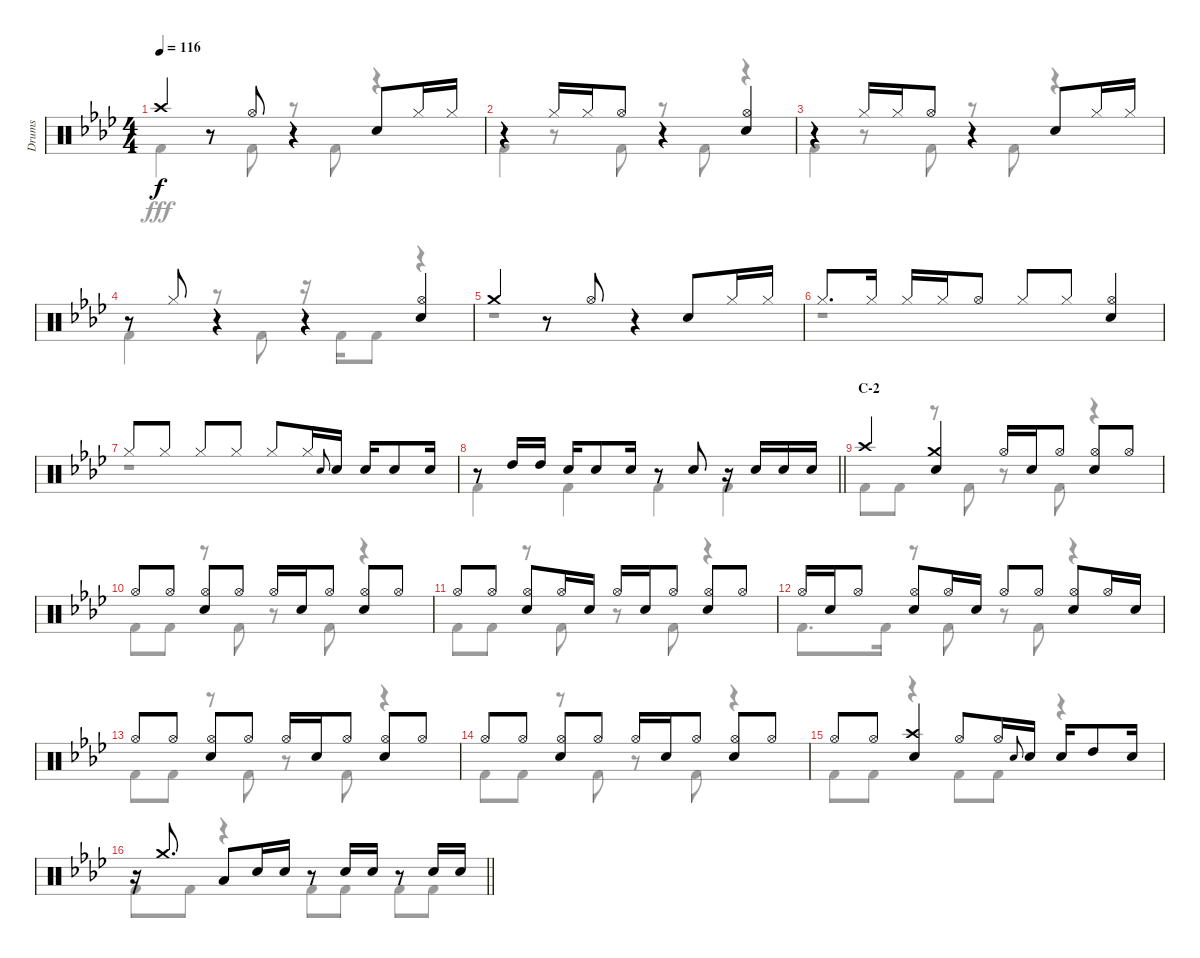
\track ("Drums" "Drums") {instrument percussion}
\staff {score}
\articulation defaults
\voice
\ts (4 4)
\tempo 116
\clef neutral
\ks ab "Crash high (hit)".4{dy f}
r.8 "Hi-Hat (open)".8 r.4 "Snare (hit) 2".8 "Hi-Hat (closed)".16 "Hi-Hat (closed)".16 |
r.4 "Hi-Hat (closed)".16 "Hi-Hat (closed)".16 "Hi-Hat (open)".8 r.4 ("Hi-Hat (open)" "Snare (hit) 2").4 |
r.4 "Hi-Hat (closed)".16 "Hi-Hat (closed)".16 "Hi-Hat (open)".8 r.4 "Snare (hit) 2".8 "Hi-Hat (closed)".16 "Hi-Hat (closed)".16 |
r.8 "Hi-Hat (closed)".8 r.4 r.4 ("Hi-Hat (open)" "Snare (hit) 2").4 |
"Crash medium (hit)".4 r.8 "Hi-Hat (open)".8 r.4 "Snare (hit) 2".8 "Hi-Hat (closed)".16 "Hi-Hat (closed)".16 |
"Hi-Hat (closed)".8{d} "Hi-Hat (closed)".16 "Hi-Hat (closed)".16 "Hi-Hat (closed)".16 "Hi-Hat (open)".8 "Hi-Hat (closed)".8 "Hi-Hat (closed)".8 ("Hi-Hat (open)" "Snare (hit) 2").4 |
"Hi-Hat (closed)".8 "Hi-Hat (closed)".8 "Hi-Hat (closed)".8 "Hi-Hat (closed)".8 "Hi-Hat (closed)".8 "Hi-Hat (closed)".16 "Snare (hit) 2".8{gr onbeat} "Snare (hit) 2".16 "Snare (hit) 2".16 "Snare (hit) 2".8 "Snare (hit) 2".16 |
\barLineRight lightlight
r.8 "High Tom (hit)".16 "High Tom (hit)".16 "Snare (hit) 2".16 "Snare (hit) 2".8 "Snare (hit) 2".16 r.8 "Snare (hit) 2".8 r.16 "Snare (hit) 2".16 "Snare (hit) 2".16 "Snare (hit) 2".16 |
\section ("" "C-2")
"Crash high (hit)".4 ("Crash medium (hit)" "Snare (hit) 2").4 "Hi-Hat (open)".16 "Snare (hit) 2".16 "Hi-Hat (open)".8 ("Hi-Hat (open)" "Snare (hit) 2").8 "Hi-Hat (open)".8 |
"Hi-Hat (open)".8 "Hi-Hat (open)".8 ("Hi-Hat (open)" "Snare (hit) 2").8 "Hi-Hat (open)".8 "Hi-Hat (open)".16 "Snare (hit) 2".16 "Hi-Hat (open)".8 ("Hi-Hat (open)" "Snare (hit) 2").8 "Hi-Hat (open)".8 |
"Hi-Hat (open)".8 "Hi-Hat (open)".8 ("Hi-Hat (open)" "Snare (hit) 2").8 "Hi-Hat (open)".16 "Snare (hit) 2".16 "Hi-Hat (open)".16 "Snare (hit) 2".16 "Hi-Hat (open)".8 ("Hi-Hat (open)" "Snare (hit) 2").8 "Hi-Hat (open)".8 |
"Hi-Hat (open)".16 "Snare (hit) 2".16 "Hi-Hat (open)".8 ("Hi-Hat (open)" "Snare (hit) 2").8 "Hi-Hat (open)".16 "Snare (hit) 2".16 "Hi-Hat (open)".8 "Hi-Hat (open)".8 ("Hi-Hat (open)" "Snare (hit) 2").8 "Hi-Hat (open)".16 "Snare (hit) 2".16 |
"Hi-Hat (open)".8 "Hi-Hat (open)".8 ("Hi-Hat (open)" "Snare (hit) 2").8 "Hi-Hat (open)".8 "Hi-Hat (open)".16 "Snare (hit) 2".16 "Hi-Hat (open)".8 ("Hi-Hat (open)" "Snare (hit) 2").8 "Hi-Hat (open)".8 |
"Hi-Hat (open)".8 "Hi-Hat (open)".8 ("Hi-Hat (open)" "Snare (hit) 2").8 "Hi-Hat (open)".8 "Hi-Hat (open)".16 "Snare (hit) 2".16 "Hi-Hat (open)".8 ("Hi-Hat (open)" "Snare (hit) 2").8 "Hi-Hat (open)".8 |
"Hi-Hat (open)".8 "Hi-Hat (open)".8 ("Crash high (hit)" "Snare (hit) 2").4 "Hi-Hat (open)".8 "Hi-Hat (open)".16 "Snare (hit) 2".8{gr onbeat} "Snare (hit) 2".16 "Snare (hit) 2".16 "High Tom (hit)".8 "Snare (hit) 2".16 |
\barLineRight lightlight
r.16 "Crash medium (hit)".8{d} "Low Tom (hit)".8 "Snare (hit) 2".16 "Snare (hit) 2".16 r.8 "Snare (hit) 2".16 "Snare (hit) 2".16 r.8 "Snare (hit) 2".16 "Snare (hit) 2".16
\voice
\clef neutral
\ottava regular
\simile none
\ks ab "Kick (hit) 2".4{dy fff}
r.8 "Kick (hit) 2".8 r.8 "Kick (hit) 2".8 r.4 |
"Kick (hit) 2".4 r.8 "Kick (hit) 2".8 r.8 "Kick (hit) 2".8 r.4 |
"Kick (hit) 2".4 r.8 "Kick (hit) 2".8 r.8 "Kick (hit) 2".8 r.4 |
"Kick (hit) 2".4 r.8 "Kick (hit) 2".8 r.16 "Kick (hit) 2".16 "Kick (hit) 2".8 r.4 |
r.1 |
r.1 |
r.1 |
\barLineRight lightlight "Kick (hit) 2".4 "Kick (hit) 2".4 "Kick (hit) 2".4 "Kick (hit) 2".4
|
"Kick (hit) 2".8 "Kick (hit) 2".8 r.8 "Kick (hit) 2".8 r.8 "Kick (hit) 2".8 r.4 |
"Kick (hit) 2".8 "Kick (hit) 2".8 r.8 "Kick (hit) 2".8 r.8 "Kick (hit) 2".8 r.4 |
"Kick (hit) 2".8 "Kick (hit) 2".8 r.8 "Kick (hit) 2".8 r.8 "Kick (hit) 2".8 r.4 |
"Kick (hit) 2".8{d} "Kick (hit) 2".16 r.8 "Kick (hit) 2".8 r.8 "Kick (hit) 2".8 r.4 |
"Kick (hit) 2".8 "Kick (hit) 2".8 r.8 "Kick (hit) 2".8 r.8 "Kick (hit) 2".8 r.4 |
"Kick (hit) 2".8 "Kick (hit) 2".8 r.8 "Kick (hit) 2".8 r.8 "Kick (hit) 2".8 r.4 |
"Kick (hit) 2".8 "Kick (hit) 2".8 r.4 "Kick (hit) 2".8 "Kick (hit) 2".8 r.4 |
\barLineRight lightlight "Kick (hit) 2".8 "Kick (hit) 2".8
r.4 "Kick (hit) 2".8 "Kick (hit) 2".8 "Kick (hit) 2".8 "Kick (hit) 2".8
